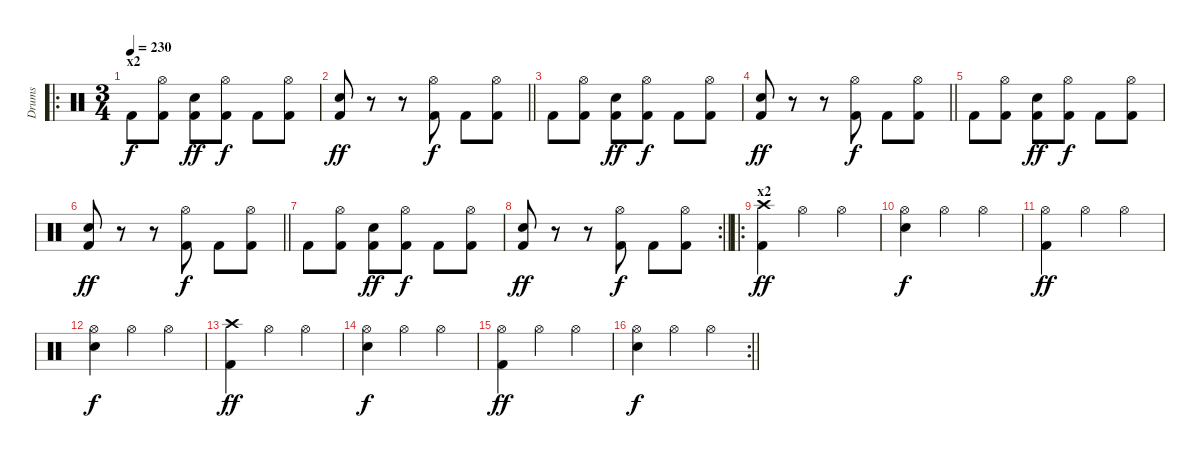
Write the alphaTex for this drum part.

\track ("Drums" "Drums") {instrument percussion}
\staff {score}
\articulation defaults
\ro
\ts (3 4)
\section ("" "x2")
\tempo 230
\clef neutral
\ks c "Kick (hit) 2".8{dy f}
("Hi-Hat (open)" "Kick (hit) 2").8 ("Electric Snare (hit)" "Kick (hit) 2").8{dy ff} ("Hi-Hat (open)" "Kick (hit) 2").8{dy f} "Kick (hit) 2".8 ("Hi-Hat (open)" "Kick (hit) 2").8 |
\barLineRight lightlight
("Electric Snare (hit)" "Kick (hit) 2").8{dy ff} r.8 r.8 ("Hi-Hat (open)" "Kick (hit) 2").8{dy f} "Kick (hit) 2".8 ("Hi-Hat (open)" "Kick (hit) 2").8 |
"Kick (hit) 2".8 ("Hi-Hat (open)" "Kick (hit) 2").8 ("Electric Snare (hit)" "Kick (hit) 2").8{dy ff} ("Hi-Hat (open)" "Kick (hit) 2").8{dy f} "Kick (hit) 2".8 ("Hi-Hat (open)" "Kick (hit) 2").8 |
\barLineRight lightlight
("Electric Snare (hit)" "Kick (hit) 2").8{dy ff} r.8 r.8 ("Hi-Hat (open)" "Kick (hit) 2").8{dy f} "Kick (hit) 2".8 ("Hi-Hat (open)" "Kick (hit) 2").8 |
"Kick (hit) 2".8 ("Hi-Hat (open)" "Kick (hit) 2").8 ("Electric Snare (hit)" "Kick (hit) 2").8{dy ff} ("Hi-Hat (open)" "Kick (hit) 2").8{dy f} "Kick (hit) 2".8 ("Hi-Hat (open)" "Kick (hit) 2").8 |
\barLineRight lightlight
("Electric Snare (hit)" "Kick (hit) 2").8{dy ff} r.8 r.8 ("Hi-Hat (open)" "Kick (hit) 2").8{dy f} "Kick (hit) 2".8 ("Hi-Hat (open)" "Kick (hit) 2").8 |
"Kick (hit) 2".8 ("Hi-Hat (open)" "Kick (hit) 2").8 ("Electric Snare (hit)" "Kick (hit) 2").8{dy ff} ("Hi-Hat (open)" "Kick (hit) 2").8{dy f} "Kick (hit) 2".8 ("Hi-Hat (open)" "Kick (hit) 2").8 |
\rc 2
\barLineRight lightlight
("Electric Snare (hit)" "Kick (hit) 2").8{dy ff} r.8 r.8 ("Hi-Hat (open)" "Kick (hit) 2").8{dy f} "Kick (hit) 2".8 ("Hi-Hat (open)" "Kick (hit) 2").8 |
\ro
\section ("" "x2")
("Crash high (hit)" "Kick (hit) 2").4{dy ff} "Hi-Hat (open)".4 "Hi-Hat (open)".4 |
("Hi-Hat (open)" "Electric Snare (hit)").4{dy f} "Hi-Hat (open)".4 "Hi-Hat (open)".4 |
("Hi-Hat (open)" "Kick (hit) 2").4{dy ff} "Hi-Hat (open)".4 "Hi-Hat (open)".4 |
("Hi-Hat (open)" "Electric Snare (hit)").4{dy f} "Hi-Hat (open)".4 "Hi-Hat (open)".4 |
("Crash high (hit)" "Kick (hit) 2").4{dy ff} "Hi-Hat (open)".4 "Hi-Hat (open)".4 |
("Hi-Hat (open)" "Electric Snare (hit)").4{dy f} "Hi-Hat (open)".4 "Hi-Hat (open)".4 |
("Hi-Hat (open)" "Kick (hit) 2").4{dy ff} "Hi-Hat (open)".4 "Hi-Hat (open)".4 |
\rc 2
\barLineRight lightlight
("Hi-Hat (open)" "Electric Snare (hit)").4{dy f} "Hi-Hat (open)".4 "Hi-Hat (open)".4
